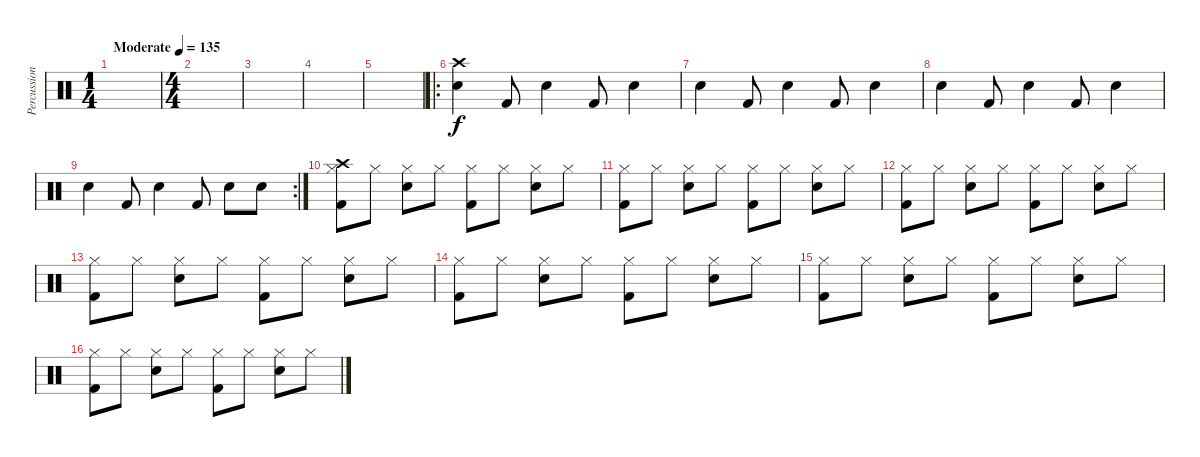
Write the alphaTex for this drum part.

\track ("Percussion" "Percussion") {instrument percussion}
\staff {score}
\articulation defaults
\ts (1 4)
\tempo (135 "Moderate")
\clef neutral
\ks c
|
\ts (4 4)
|
|
|
|
\ro
("Crash high (hit)" "Snare (hit) 2").4 "Kick (hit) 2".8 "Snare (hit) 2".4 "Kick (hit) 2".8 "Snare (hit) 2".4 |
"Snare (hit) 2".4 "Kick (hit) 2".8 "Snare (hit) 2".4 "Kick (hit) 2".8 "Snare (hit) 2".4 |
"Snare (hit) 2".4 "Kick (hit) 2".8 "Snare (hit) 2".4 "Kick (hit) 2".8 "Snare (hit) 2".4 |
\rc 2 "Snare (hit) 2".4 "Kick (hit) 2".8 "Snare (hit) 2".4 "Kick (hit) 2".8 "Snare (hit) 2".8 "Snare (hit) 2".8
|
("Crash high (hit)" "Hi-Hat (closed)" "Kick (hit) 2").8 "Hi-Hat (closed)".8 ("Hi-Hat (closed)" "Snare (hit) 2").8 "Hi-Hat (closed)".8 ("Hi-Hat (closed)" "Kick (hit) 2").8 "Hi-Hat (closed)".8 ("Hi-Hat (closed)" "Snare (hit) 2").8 "Hi-Hat (closed)".8 |
("Hi-Hat (closed)" "Kick (hit) 2").8 "Hi-Hat (closed)".8 ("Hi-Hat (closed)" "Snare (hit) 2").8 "Hi-Hat (closed)".8 ("Hi-Hat (closed)" "Kick (hit) 2").8 "Hi-Hat (closed)".8 ("Hi-Hat (closed)" "Snare (hit) 2").8 "Hi-Hat (closed)".8 |
("Hi-Hat (closed)" "Kick (hit) 2").8 "Hi-Hat (closed)".8 ("Hi-Hat (closed)" "Snare (hit) 2").8 "Hi-Hat (closed)".8 ("Hi-Hat (closed)" "Kick (hit) 2").8 "Hi-Hat (closed)".8 ("Hi-Hat (closed)" "Snare (hit) 2").8 "Hi-Hat (closed)".8 |
("Hi-Hat (closed)" "Kick (hit) 2").8 "Hi-Hat (closed)".8 ("Hi-Hat (closed)" "Snare (hit) 2").8 "Hi-Hat (closed)".8 ("Hi-Hat (closed)" "Kick (hit) 2").8 "Hi-Hat (closed)".8 ("Hi-Hat (closed)" "Snare (hit) 2").8 "Hi-Hat (closed)".8 |
("Hi-Hat (closed)" "Kick (hit) 2").8 "Hi-Hat (closed)".8 ("Hi-Hat (closed)" "Snare (hit) 2").8 "Hi-Hat (closed)".8 ("Hi-Hat (closed)" "Kick (hit) 2").8 "Hi-Hat (closed)".8 ("Hi-Hat (closed)" "Snare (hit) 2").8 "Hi-Hat (closed)".8 |
("Hi-Hat (closed)" "Kick (hit) 2").8 "Hi-Hat (closed)".8 ("Hi-Hat (closed)" "Snare (hit) 2").8 "Hi-Hat (closed)".8 ("Hi-Hat (closed)" "Kick (hit) 2").8 "Hi-Hat (closed)".8 ("Hi-Hat (closed)" "Snare (hit) 2").8 "Hi-Hat (closed)".8 |
("Hi-Hat (closed)" "Kick (hit) 2").8 "Hi-Hat (closed)".8 ("Hi-Hat (closed)" "Snare (hit) 2").8 "Hi-Hat (closed)".8 ("Hi-Hat (closed)" "Kick (hit) 2").8 "Hi-Hat (closed)".8 ("Hi-Hat (closed)" "Snare (hit) 2").8 "Hi-Hat (closed)".8
